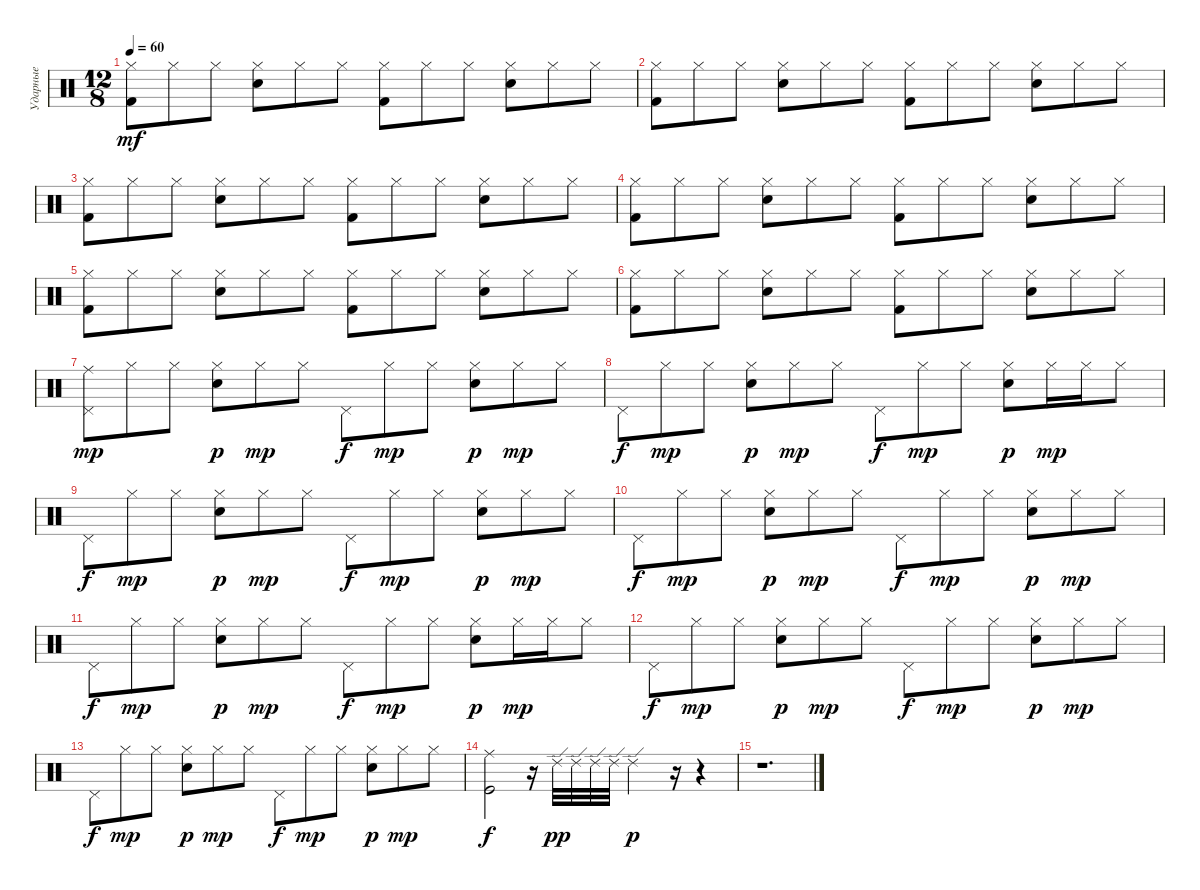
\track ("Ударные" "Ударные") {instrument percussion}
\staff {score}
\articulation defaults
\ts (12 8)
\tempo 60
\clef neutral
\ks c
("Kick (hit) 2" "Hi-Hat (closed)").8{dy mf} "Hi-Hat (closed)".8 "Hi-Hat (closed)".8 ("Hi-Hat (closed)" "Snare (hit) 2").8 "Hi-Hat (closed)".8 "Hi-Hat (closed)".8 ("Hi-Hat (closed)" "Kick (hit) 2").8 "Hi-Hat (closed)".8 "Hi-Hat (closed)".8 ("Hi-Hat (closed)" "Snare (hit) 2").8 "Hi-Hat (closed)".8 "Hi-Hat (closed)".8 |
("Kick (hit) 2" "Hi-Hat (closed)").8 "Hi-Hat (closed)".8 "Hi-Hat (closed)".8 ("Hi-Hat (closed)" "Snare (hit) 2").8 "Hi-Hat (closed)".8 "Hi-Hat (closed)".8 ("Hi-Hat (closed)" "Kick (hit) 2").8 "Hi-Hat (closed)".8 "Hi-Hat (closed)".8 ("Hi-Hat (closed)" "Snare (hit) 2").8 "Hi-Hat (closed)".8 "Hi-Hat (closed)".8 |
("Kick (hit) 2" "Hi-Hat (closed)").8 "Hi-Hat (closed)".8 "Hi-Hat (closed)".8 ("Hi-Hat (closed)" "Snare (hit) 2").8 "Hi-Hat (closed)".8 "Hi-Hat (closed)".8 ("Hi-Hat (closed)" "Kick (hit) 2").8 "Hi-Hat (closed)".8 "Hi-Hat (closed)".8 ("Hi-Hat (closed)" "Snare (hit) 2").8 "Hi-Hat (closed)".8 "Hi-Hat (closed)".8 |
("Kick (hit) 2" "Hi-Hat (closed)").8 "Hi-Hat (closed)".8 "Hi-Hat (closed)".8 ("Hi-Hat (closed)" "Snare (hit) 2").8 "Hi-Hat (closed)".8 "Hi-Hat (closed)".8 ("Hi-Hat (closed)" "Kick (hit) 2").8 "Hi-Hat (closed)".8 "Hi-Hat (closed)".8 ("Hi-Hat (closed)" "Snare (hit) 2").8 "Hi-Hat (closed)".8 "Hi-Hat (closed)".8 |
("Kick (hit) 2" "Hi-Hat (closed)").8 "Hi-Hat (closed)".8 "Hi-Hat (closed)".8 ("Hi-Hat (closed)" "Snare (hit) 2").8 "Hi-Hat (closed)".8 "Hi-Hat (closed)".8 ("Hi-Hat (closed)" "Kick (hit) 2").8 "Hi-Hat (closed)".8 "Hi-Hat (closed)".8 ("Hi-Hat (closed)" "Snare (hit) 2").8 "Hi-Hat (closed)".8 "Hi-Hat (closed)".8 |
("Kick (hit) 2" "Hi-Hat (closed)").8 "Hi-Hat (closed)".8 "Hi-Hat (closed)".8 ("Hi-Hat (closed)" "Snare (hit) 2").8 "Hi-Hat (closed)".8 "Hi-Hat (closed)".8 ("Hi-Hat (closed)" "Kick (hit) 2").8 "Hi-Hat (closed)".8 "Hi-Hat (closed)".8 ("Hi-Hat (closed)" "Snare (hit) 2").8 "Hi-Hat (closed)".8 "Hi-Hat (closed)".8 |
("Pedal Hi-Hat (hit)" "Ride (middle)").8{dy mp} "Hi-Hat (closed)".8 "Hi-Hat (closed)".8 ("Hi-Hat (closed)" "Electric Snare (hit)").8{dy p} "Hi-Hat (closed)".8{dy mp} "Hi-Hat (closed)".8 "Pedal Hi-Hat (hit)".8{dy f} "Hi-Hat (closed)".8{dy mp} "Hi-Hat (closed)".8 ("Hi-Hat (closed)" "Electric Snare (hit)").8{dy p} "Hi-Hat (closed)".8{dy mp} "Hi-Hat (closed)".8 |
"Pedal Hi-Hat (hit)".8{dy f} "Hi-Hat (closed)".8{dy mp} "Hi-Hat (closed)".8 ("Hi-Hat (closed)" "Electric Snare (hit)").8{dy p} "Hi-Hat (closed)".8{dy mp} "Hi-Hat (closed)".8 "Pedal Hi-Hat (hit)".8{dy f} "Hi-Hat (closed)".8{dy mp} "Hi-Hat (closed)".8 ("Hi-Hat (closed)" "Electric Snare (hit)").8{dy p} "Hi-Hat (closed)".16{dy mp} "Hi-Hat (closed)".16 "Hi-Hat (closed)".8 |
"Pedal Hi-Hat (hit)".8{dy f} "Hi-Hat (closed)".8{dy mp} "Hi-Hat (closed)".8 ("Hi-Hat (closed)" "Electric Snare (hit)").8{dy p} "Hi-Hat (closed)".8{dy mp} "Hi-Hat (closed)".8 "Pedal Hi-Hat (hit)".8{dy f} "Hi-Hat (closed)".8{dy mp} "Hi-Hat (closed)".8 ("Hi-Hat (closed)" "Electric Snare (hit)").8{dy p} "Hi-Hat (closed)".8{dy mp} "Hi-Hat (closed)".8 |
"Pedal Hi-Hat (hit)".8{dy f} "Hi-Hat (closed)".8{dy mp} "Hi-Hat (closed)".8 ("Hi-Hat (closed)" "Electric Snare (hit)").8{dy p} "Hi-Hat (closed)".8{dy mp} "Hi-Hat (closed)".8 "Pedal Hi-Hat (hit)".8{dy f} "Hi-Hat (closed)".8{dy mp} "Hi-Hat (closed)".8 ("Hi-Hat (closed)" "Electric Snare (hit)").8{dy p} "Hi-Hat (closed)".8{dy mp} "Hi-Hat (closed)".8 |
"Pedal Hi-Hat (hit)".8{dy f} "Hi-Hat (closed)".8{dy mp} "Hi-Hat (closed)".8 ("Hi-Hat (closed)" "Electric Snare (hit)").8{dy p} "Hi-Hat (closed)".8{dy mp} "Hi-Hat (closed)".8 "Pedal Hi-Hat (hit)".8{dy f} "Hi-Hat (closed)".8{dy mp} "Hi-Hat (closed)".8 ("Hi-Hat (closed)" "Electric Snare (hit)").8{dy p} "Hi-Hat (closed)".16{dy mp} "Hi-Hat (closed)".16 "Hi-Hat (closed)".8 |
"Pedal Hi-Hat (hit)".8{dy f} "Hi-Hat (closed)".8{dy mp} "Hi-Hat (closed)".8 ("Hi-Hat (closed)" "Electric Snare (hit)").8{dy p} "Hi-Hat (closed)".8{dy mp} "Hi-Hat (closed)".8 "Pedal Hi-Hat (hit)".8{dy f} "Hi-Hat (closed)".8{dy mp} "Hi-Hat (closed)".8 ("Hi-Hat (closed)" "Electric Snare (hit)").8{dy p} "Hi-Hat (closed)".8{dy mp} "Hi-Hat (closed)".8 |
"Pedal Hi-Hat (hit)".8{dy f} "Hi-Hat (closed)".8{dy mp} "Hi-Hat (closed)".8 ("Hi-Hat (closed)" "Electric Snare (hit)").8{dy p} "Hi-Hat (closed)".8{dy mp} "Hi-Hat (closed)".8 "Pedal Hi-Hat (hit)".8{dy f} "Hi-Hat (closed)".8{dy mp} "Hi-Hat (closed)".8 ("Hi-Hat (closed)" "Electric Snare (hit)").8{dy p} "Hi-Hat (closed)".8{dy mp} "Hi-Hat (closed)".8 |
("Kick (hit)" "Ride (middle)").2{dy f} r.16 "Ride (edge) 2".32{dy pp} "Ride (edge) 2".32 "Ride (edge) 2".32 "Ride (edge) 2".32 "Ride (edge) 2".2{dy p} r.16 r.4 |
r.1{d}
